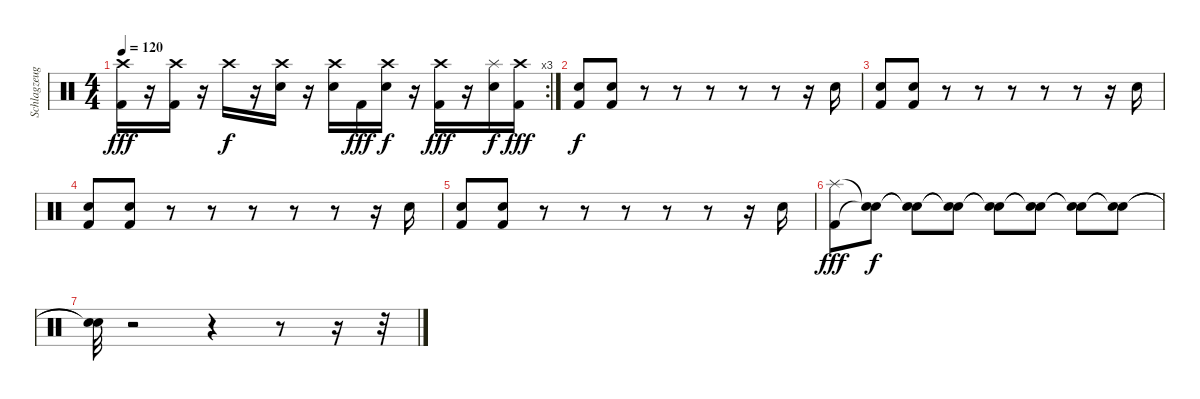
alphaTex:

\track ("Schlagzeug" "Schlagzeug") {instrument percussion}
\staff {score}
\articulation defaults
\rc 3
\ts (4 4)
\tempo 120
\clef neutral
\ks c
("Crash high (hit)" "Kick (hit) 2").16{dy fff} r.16 ("Crash high (hit)" "Kick (hit) 2").16 r.16 "Crash high (hit)".16{dy f} r.16 ("Crash high (hit)" "Snare (hit) 2").16 r.16 ("Crash high (hit)" "Snare (hit) 2").16 "Kick (hit) 2".16{dy fff} ("Crash high (hit)" "Snare (hit) 2").16{dy f} r.16 ("Crash high (hit)" "Kick (hit) 2").16{dy fff} r.16 ("Splash (hit)" "Snare (hit) 2").16{dy f} ("Crash high (hit)" "Kick (hit) 2").16{dy fff} |
("Snare (hit) 2" "Kick (hit) 2").8{dy f} ("Snare (hit) 2" "Kick (hit) 2").8 r.8 r.8 r.8 r.8 r.8 r.16 "Snare (hit) 2".16 |
("Snare (hit) 2" "Kick (hit) 2").8 ("Snare (hit) 2" "Kick (hit) 2").8 r.8 r.8 r.8 r.8 r.8 r.16 "Snare (hit) 2".16 |
("Snare (hit) 2" "Kick (hit) 2").8 ("Snare (hit) 2" "Kick (hit) 2").8 r.8 r.8 r.8 r.8 r.8 r.16 "Snare (hit) 2".16 |
("Snare (hit) 2" "Kick (hit) 2").8 ("Snare (hit) 2" "Kick (hit) 2").8 r.8 r.8 r.8 r.8 r.8 r.16 "Snare (hit) 2".16 |
("Kick (hit) 2" "Splash (hit)").8{dy fff} ("Snare (hit)"{t} "Snare (hit)"{t}).8{dy f} ("Snare (hit)"{t} "Snare (hit)"{t}).8 ("Snare (hit)"{t} "Snare (hit)"{t}).8 ("Snare (hit)"{t} "Snare (hit)"{t}).8 ("Snare (hit)"{t} "Snare (hit)"{t}).8 ("Snare (hit)"{t} "Snare (hit)"{t}).8 ("Snare (hit)"{t} "Snare (hit)"{t}).8 |
("Snare (hit)"{t} "Snare (hit)"{t}).32 r.2 r.4 r.8 r.16 r.32
